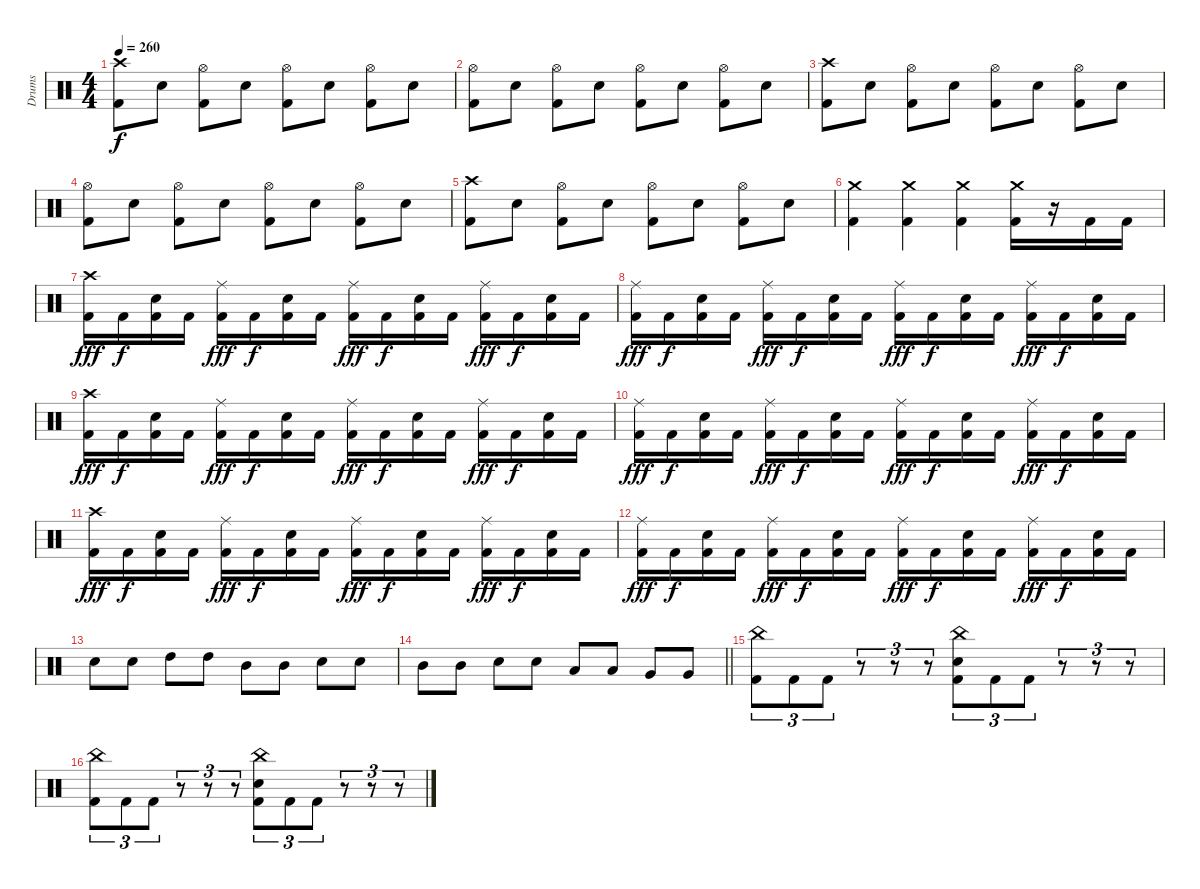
\track ("Drums" "Drums") {instrument percussion}
\staff {score}
\articulation defaults
\ts (4 4)
\tempo 260
\clef neutral
\ks c
("Crash high (hit)" "Kick (hit) 2").8{dy f} "Electric Snare (hit)".8 ("Hi-Hat (open)" "Kick (hit) 2").8 "Electric Snare (hit)".8 ("Hi-Hat (open)" "Kick (hit) 2").8 "Electric Snare (hit)".8 ("Hi-Hat (open)" "Kick (hit) 2").8 "Electric Snare (hit)".8 |
("Hi-Hat (open)" "Kick (hit) 2").8 "Electric Snare (hit)".8 ("Hi-Hat (open)" "Kick (hit) 2").8 "Electric Snare (hit)".8 ("Hi-Hat (open)" "Kick (hit) 2").8 "Electric Snare (hit)".8 ("Hi-Hat (open)" "Kick (hit) 2").8 "Electric Snare (hit)".8 |
("Crash high (hit)" "Kick (hit) 2").8 "Electric Snare (hit)".8 ("Hi-Hat (open)" "Kick (hit) 2").8 "Electric Snare (hit)".8 ("Hi-Hat (open)" "Kick (hit) 2").8 "Electric Snare (hit)".8 ("Hi-Hat (open)" "Kick (hit) 2").8 "Electric Snare (hit)".8 |
("Hi-Hat (open)" "Kick (hit) 2").8 "Electric Snare (hit)".8 ("Hi-Hat (open)" "Kick (hit) 2").8 "Electric Snare (hit)".8 ("Hi-Hat (open)" "Kick (hit) 2").8 "Electric Snare (hit)".8 ("Hi-Hat (open)" "Kick (hit) 2").8 "Electric Snare (hit)".8 |
("Crash high (hit)" "Kick (hit) 2").8 "Electric Snare (hit)".8 ("Hi-Hat (open)" "Kick (hit) 2").8 "Electric Snare (hit)".8 ("Hi-Hat (open)" "Kick (hit) 2").8 "Electric Snare (hit)".8 ("Hi-Hat (open)" "Kick (hit) 2").8 "Electric Snare (hit)".8 |
("Crash medium (hit)" "Kick (hit) 2").4 ("Crash medium (hit)" "Kick (hit) 2").4 ("Crash medium (hit)" "Kick (hit) 2").4 ("Crash medium (hit)" "Kick (hit) 2").16 r.16 "Kick (hit) 2".16 "Kick (hit) 2".16 |
("Crash high (hit)" "Kick (hit) 2").16{dy fff} "Kick (hit) 2".16{dy f} ("Electric Snare (hit)" "Kick (hit) 2").16 "Kick (hit) 2".16 ("Ride (middle)" "Kick (hit) 2").16{dy fff} "Kick (hit) 2".16{dy f} ("Electric Snare (hit)" "Kick (hit) 2").16 "Kick (hit) 2".16 ("Ride (middle)" "Kick (hit) 2").16{dy fff} "Kick (hit) 2".16{dy f} ("Electric Snare (hit)" "Kick (hit) 2").16 "Kick (hit) 2".16 ("Ride (middle)" "Kick (hit) 2").16{dy fff} "Kick (hit) 2".16{dy f} ("Electric Snare (hit)" "Kick (hit) 2").16 "Kick (hit) 2".16 |
("Ride (middle)" "Kick (hit) 2").16{dy fff} "Kick (hit) 2".16{dy f} ("Electric Snare (hit)" "Kick (hit) 2").16 "Kick (hit) 2".16 ("Ride (middle)" "Kick (hit) 2").16{dy fff} "Kick (hit) 2".16{dy f} ("Electric Snare (hit)" "Kick (hit) 2").16 "Kick (hit) 2".16 ("Ride (middle)" "Kick (hit) 2").16{dy fff} "Kick (hit) 2".16{dy f} ("Electric Snare (hit)" "Kick (hit) 2").16 "Kick (hit) 2".16 ("Ride (middle)" "Kick (hit) 2").16{dy fff} "Kick (hit) 2".16{dy f} ("Electric Snare (hit)" "Kick (hit) 2").16 "Kick (hit) 2".16 |
("Crash high (hit)" "Kick (hit) 2").16{dy fff} "Kick (hit) 2".16{dy f} ("Electric Snare (hit)" "Kick (hit) 2").16 "Kick (hit) 2".16 ("Ride (middle)" "Kick (hit) 2").16{dy fff} "Kick (hit) 2".16{dy f} ("Electric Snare (hit)" "Kick (hit) 2").16 "Kick (hit) 2".16 ("Ride (middle)" "Kick (hit) 2").16{dy fff} "Kick (hit) 2".16{dy f} ("Electric Snare (hit)" "Kick (hit) 2").16 "Kick (hit) 2".16 ("Ride (middle)" "Kick (hit) 2").16{dy fff} "Kick (hit) 2".16{dy f} ("Electric Snare (hit)" "Kick (hit) 2").16 "Kick (hit) 2".16 |
("Ride (middle)" "Kick (hit) 2").16{dy fff} "Kick (hit) 2".16{dy f} ("Electric Snare (hit)" "Kick (hit) 2").16 "Kick (hit) 2".16 ("Ride (middle)" "Kick (hit) 2").16{dy fff} "Kick (hit) 2".16{dy f} ("Electric Snare (hit)" "Kick (hit) 2").16 "Kick (hit) 2".16 ("Ride (middle)" "Kick (hit) 2").16{dy fff} "Kick (hit) 2".16{dy f} ("Electric Snare (hit)" "Kick (hit) 2").16 "Kick (hit) 2".16 ("Ride (middle)" "Kick (hit) 2").16{dy fff} "Kick (hit) 2".16{dy f} ("Electric Snare (hit)" "Kick (hit) 2").16 "Kick (hit) 2".16 |
("Crash high (hit)" "Kick (hit) 2").16{dy fff} "Kick (hit) 2".16{dy f} ("Electric Snare (hit)" "Kick (hit) 2").16 "Kick (hit) 2".16 ("Ride (middle)" "Kick (hit) 2").16{dy fff} "Kick (hit) 2".16{dy f} ("Electric Snare (hit)" "Kick (hit) 2").16 "Kick (hit) 2".16 ("Ride (middle)" "Kick (hit) 2").16{dy fff} "Kick (hit) 2".16{dy f} ("Electric Snare (hit)" "Kick (hit) 2").16 "Kick (hit) 2".16 ("Ride (middle)" "Kick (hit) 2").16{dy fff} "Kick (hit) 2".16{dy f} ("Electric Snare (hit)" "Kick (hit) 2").16 "Kick (hit) 2".16 |
("Ride (middle)" "Kick (hit) 2").16{dy fff} "Kick (hit) 2".16{dy f} ("Electric Snare (hit)" "Kick (hit) 2").16 "Kick (hit) 2".16 ("Ride (middle)" "Kick (hit) 2").16{dy fff} "Kick (hit) 2".16{dy f} ("Electric Snare (hit)" "Kick (hit) 2").16 "Kick (hit) 2".16 ("Ride (middle)" "Kick (hit) 2").16{dy fff} "Kick (hit) 2".16{dy f} ("Electric Snare (hit)" "Kick (hit) 2").16 "Kick (hit) 2".16 ("Ride (middle)" "Kick (hit) 2").16{dy fff} "Kick (hit) 2".16{dy f} ("Electric Snare (hit)" "Kick (hit) 2").16 "Kick (hit) 2".16 |
"Electric Snare (hit)".8 "Electric Snare (hit)".8 "High Tom (hit)".8 "High Tom (hit)".8 "Mid Tom (hit)".8 "Mid Tom (hit)".8 "Electric Snare (hit)".8 "Electric Snare (hit)".8 |
\barLineRight lightlight "Mid Tom (hit)".8 "Mid Tom (hit)".8 "Electric Snare (hit)".8 "Electric Snare (hit)".8 "Low Tom (hit)".8 "Low Tom (hit)".8 "Very Low Tom (hit)".8 "Very Low Tom (hit)".8
|
("China (hit)" "Kick (hit) 2").8{tu (3 2)} "Kick (hit) 2".8{tu (3 2)} "Kick (hit) 2".8{tu (3 2)} r.8{tu (3 2)} r.8{tu (3 2)} r.8{tu (3 2)} ("China (hit)" "Electric Snare (hit)" "Kick (hit) 2").8{tu (3 2)} "Kick (hit) 2".8{tu (3 2)} "Kick (hit) 2".8{tu (3 2)} r.8{tu (3 2)} r.8{tu (3 2)} r.8{tu (3 2)} |
("China (hit)" "Kick (hit) 2").8{tu (3 2)} "Kick (hit) 2".8{tu (3 2)} "Kick (hit) 2".8{tu (3 2)} r.8{tu (3 2)} r.8{tu (3 2)} r.8{tu (3 2)} ("China (hit)" "Electric Snare (hit)" "Kick (hit) 2").8{tu (3 2)} "Kick (hit) 2".8{tu (3 2)} "Kick (hit) 2".8{tu (3 2)} r.8{tu (3 2)} r.8{tu (3 2)} r.8{tu (3 2)}
